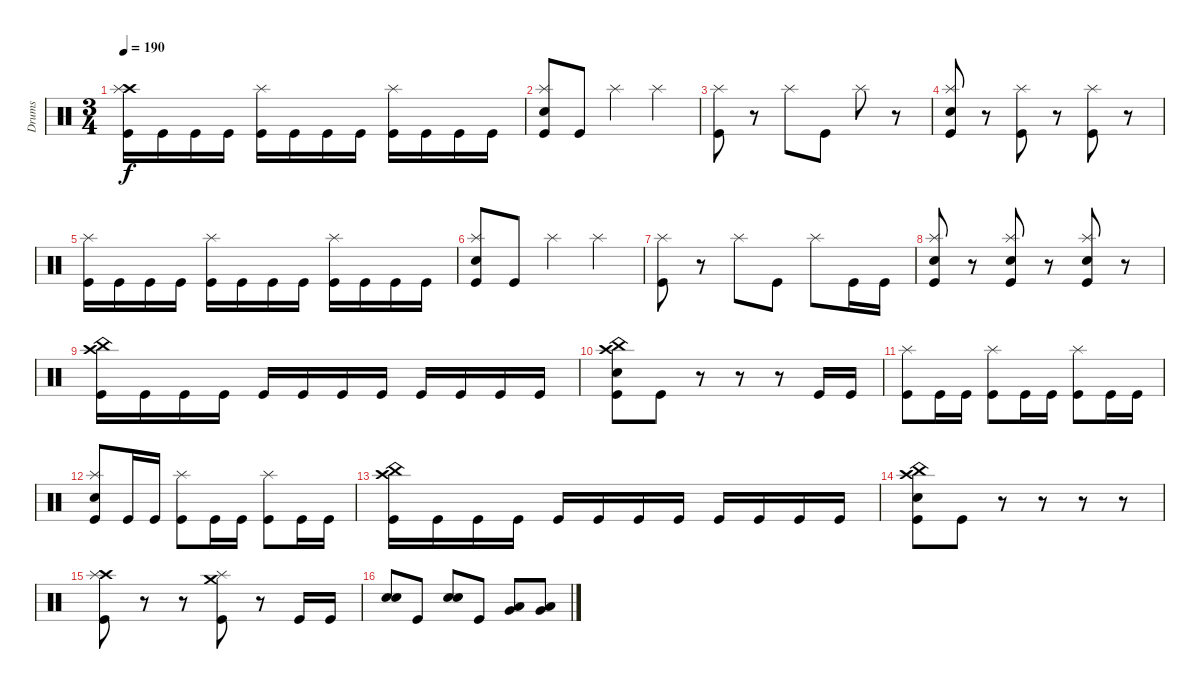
\track ("Drums" "Drums") {instrument percussion}
\staff {score}
\articulation defaults
\ts (3 4)
\tempo 190
\clef neutral
\ks c
("Kick (hit)" "Crash high (hit)" "Splash (hit)").16{dy f} "Kick (hit)".16 "Kick (hit)".16 "Kick (hit)".16 ("Kick (hit)" "Splash (hit)").16 "Kick (hit)".16 "Kick (hit)".16 "Kick (hit)".16 ("Kick (hit)" "Splash (hit)").16 "Kick (hit)".16 "Kick (hit)".16 "Kick (hit)".16 |
("Kick (hit)" "Splash (hit)" "Snare (hit) 2").8 "Kick (hit)".8 "Splash (hit)".4 "Splash (hit)".4 |
("Kick (hit)" "Splash (hit)").8 r.8 "Splash (hit)".8 "Kick (hit)".8 "Splash (hit)".8 r.8 |
("Kick (hit)" "Splash (hit)" "Snare (hit) 2").8 r.8 ("Kick (hit)" "Splash (hit)").8 r.8 ("Kick (hit)" "Splash (hit)").8 r.8 |
("Kick (hit)" "Splash (hit)").16 "Kick (hit)".16 "Kick (hit)".16 "Kick (hit)".16 ("Kick (hit)" "Splash (hit)").16 "Kick (hit)".16 "Kick (hit)".16 "Kick (hit)".16 ("Kick (hit)" "Splash (hit)").16 "Kick (hit)".16 "Kick (hit)".16 "Kick (hit)".16 |
("Kick (hit)" "Splash (hit)" "Snare (hit) 2").8 "Kick (hit)".8 "Splash (hit)".4 "Splash (hit)".4 |
("Kick (hit)" "Splash (hit)").8 r.8 "Splash (hit)".8 "Kick (hit)".8 "Splash (hit)".8 "Kick (hit)".16 "Kick (hit)".16 |
("Kick (hit)" "Splash (hit)" "Snare (hit) 2").8 r.8 ("Kick (hit)" "Splash (hit)" "Snare (hit) 2").8 r.8 ("Kick (hit)" "Splash (hit)" "Snare (hit) 2").8 r.8 |
("Kick (hit)" "China (hit)" "Crash high (hit)").16 "Kick (hit)".16 "Kick (hit)".16 "Kick (hit)".16 "Kick (hit)".16 "Kick (hit)".16 "Kick (hit)".16 "Kick (hit)".16 "Kick (hit)".16 "Kick (hit)".16 "Kick (hit)".16 "Kick (hit)".16 |
("Kick (hit)" "China (hit)" "Crash high (hit)" "Snare (hit) 2").8 "Kick (hit)".8 r.8 r.8 r.8 "Kick (hit)".16 "Kick (hit)".16 |
("Kick (hit)" "Splash (hit)").8 "Kick (hit)".16 "Kick (hit)".16 ("Splash (hit)" "Kick (hit)").8 "Kick (hit)".16 "Kick (hit)".16 ("Splash (hit)" "Kick (hit)").8 "Kick (hit)".16 "Kick (hit)".16 |
("Kick (hit)" "Splash (hit)" "Snare (hit) 2").8 "Kick (hit)".16 "Kick (hit)".16 ("Splash (hit)" "Kick (hit)").8 "Kick (hit)".16 "Kick (hit)".16 ("Splash (hit)" "Kick (hit)").8 "Kick (hit)".16 "Kick (hit)".16 |
("Kick (hit)" "China (hit)" "Crash high (hit)").16 "Kick (hit)".16 "Kick (hit)".16 "Kick (hit)".16 "Kick (hit)".16 "Kick (hit)".16 "Kick (hit)".16 "Kick (hit)".16 "Kick (hit)".16 "Kick (hit)".16 "Kick (hit)".16 "Kick (hit)".16 |
("Kick (hit)" "China (hit)" "Crash high (hit)" "Snare (hit) 2").8 "Kick (hit)".8 r.8 r.8 r.8 r.8 |
("Kick (hit)" "Crash high (hit)" "Splash (hit)").8 r.8 r.8 ("Kick (hit)" "Crash medium (hit)" "Splash (hit)").8 r.8 "Kick (hit)".16 "Kick (hit)".16 |
("Snare (hit) 2" "Snare (hit) 2").8 "Kick (hit)".8 ("Snare (hit) 2" "Snare (hit) 2").8 "Kick (hit)".8 ("Very Low Tom (hit)" "Low Tom (hit)").8 ("Very Low Tom (hit)" "Low Floor Tom (hit)").8
